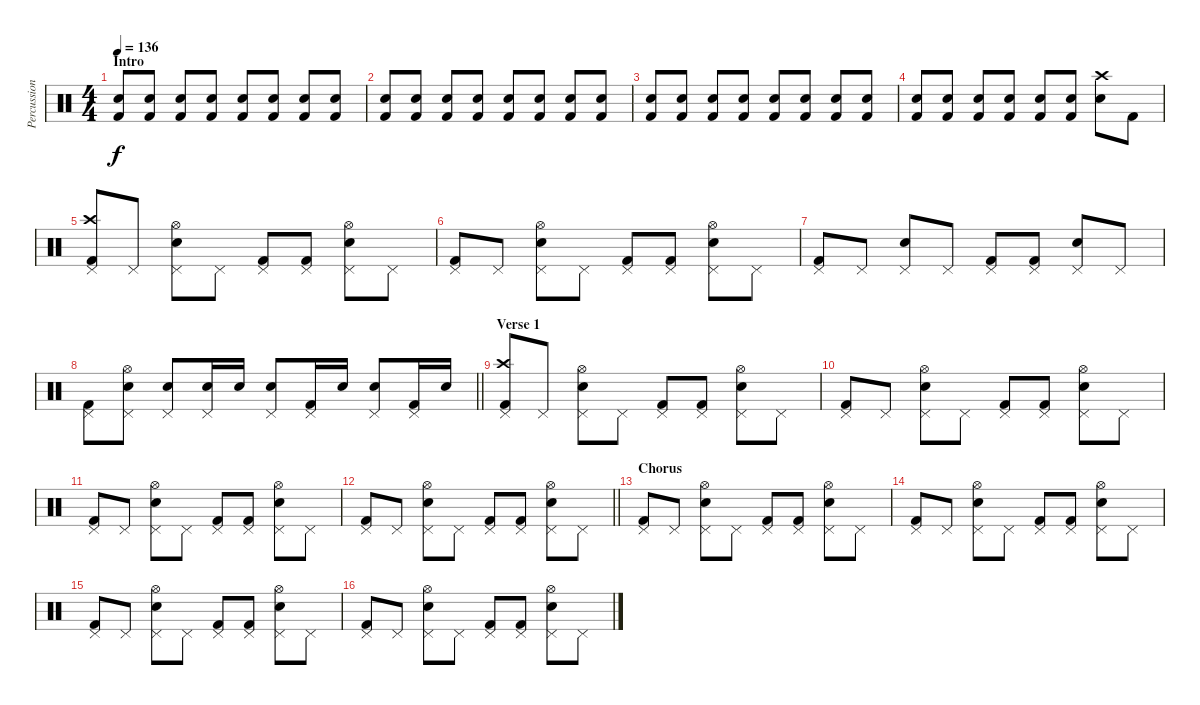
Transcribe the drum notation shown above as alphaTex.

\track ("Percussion" "Percussion") {instrument percussion}
\staff {score}
\articulation defaults
\ts (4 4)
\section ("" "Intro")
\tempo 136
\clef neutral
\ks c
("Snare (hit) 2" "Kick (hit) 2").8{dy f} ("Snare (hit) 2" "Kick (hit) 2").8 ("Snare (hit) 2" "Kick (hit) 2").8 ("Snare (hit) 2" "Kick (hit) 2").8 ("Snare (hit) 2" "Kick (hit) 2").8 ("Snare (hit) 2" "Kick (hit) 2").8 ("Snare (hit) 2" "Kick (hit) 2").8 ("Snare (hit) 2" "Kick (hit) 2").8 |
("Snare (hit) 2" "Kick (hit) 2").8 ("Snare (hit) 2" "Kick (hit) 2").8 ("Snare (hit) 2" "Kick (hit) 2").8 ("Snare (hit) 2" "Kick (hit) 2").8 ("Snare (hit) 2" "Kick (hit) 2").8 ("Snare (hit) 2" "Kick (hit) 2").8 ("Snare (hit) 2" "Kick (hit) 2").8 ("Snare (hit) 2" "Kick (hit) 2").8 |
("Snare (hit) 2" "Kick (hit) 2").8 ("Snare (hit) 2" "Kick (hit) 2").8 ("Snare (hit) 2" "Kick (hit) 2").8 ("Snare (hit) 2" "Kick (hit) 2").8 ("Snare (hit) 2" "Kick (hit) 2").8 ("Snare (hit) 2" "Kick (hit) 2").8 ("Snare (hit) 2" "Kick (hit) 2").8 ("Snare (hit) 2" "Kick (hit) 2").8 |
("Snare (hit) 2" "Kick (hit) 2").8 ("Snare (hit) 2" "Kick (hit) 2").8 ("Snare (hit) 2" "Kick (hit) 2").8 ("Snare (hit) 2" "Kick (hit) 2").8 ("Snare (hit) 2" "Kick (hit) 2").8 ("Snare (hit) 2" "Kick (hit) 2").8 ("Crash high (hit)" "Snare (hit) 2").8 "Kick (hit) 2".8 |
("Crash high (hit)" "Pedal Hi-Hat (hit)" "Kick (hit) 2").8 "Pedal Hi-Hat (hit)".8 ("Hi-Hat (open)" "Pedal Hi-Hat (hit)" "Snare (hit) 2").8 "Pedal Hi-Hat (hit)".8 ("Pedal Hi-Hat (hit)" "Kick (hit) 2").8 ("Pedal Hi-Hat (hit)" "Kick (hit) 2").8 ("Hi-Hat (open)" "Pedal Hi-Hat (hit)" "Snare (hit) 2").8 "Pedal Hi-Hat (hit)".8 |
("Pedal Hi-Hat (hit)" "Kick (hit) 2").8 "Pedal Hi-Hat (hit)".8 ("Hi-Hat (open)" "Pedal Hi-Hat (hit)" "Snare (hit) 2").8 "Pedal Hi-Hat (hit)".8 ("Pedal Hi-Hat (hit)" "Kick (hit) 2").8 ("Pedal Hi-Hat (hit)" "Kick (hit) 2").8 ("Hi-Hat (open)" "Pedal Hi-Hat (hit)" "Snare (hit) 2").8 "Pedal Hi-Hat (hit)".8 |
("Pedal Hi-Hat (hit)" "Kick (hit) 2").8 "Pedal Hi-Hat (hit)".8 ("Pedal Hi-Hat (hit)" "Snare (hit) 2").8 "Pedal Hi-Hat (hit)".8 ("Pedal Hi-Hat (hit)" "Kick (hit) 2").8 ("Pedal Hi-Hat (hit)" "Kick (hit) 2").8 ("Pedal Hi-Hat (hit)" "Snare (hit) 2").8 "Pedal Hi-Hat (hit)".8 |
\barLineRight lightlight
("Pedal Hi-Hat (hit)" "Kick (hit) 2").8 ("Hi-Hat (open)" "Pedal Hi-Hat (hit)" "Snare (hit) 2").8 ("Pedal Hi-Hat (hit)" "Snare (hit) 2").8 ("Pedal Hi-Hat (hit)" "Snare (hit) 2").16 "Snare (hit) 2".16 ("Pedal Hi-Hat (hit)" "Snare (hit) 2").8 ("Pedal Hi-Hat (hit)" "Kick (hit) 2").16 "Snare (hit) 2".16 ("Pedal Hi-Hat (hit)" "Snare (hit) 2").8 ("Pedal Hi-Hat (hit)" "Kick (hit) 2").16 "Snare (hit) 2".16 |
\section ("" "Verse 1")
("Crash high (hit)" "Pedal Hi-Hat (hit)" "Kick (hit) 2").8 "Pedal Hi-Hat (hit)".8 ("Hi-Hat (open)" "Pedal Hi-Hat (hit)" "Snare (hit) 2").8 "Pedal Hi-Hat (hit)".8 ("Pedal Hi-Hat (hit)" "Kick (hit) 2").8 ("Pedal Hi-Hat (hit)" "Kick (hit) 2").8 ("Hi-Hat (open)" "Pedal Hi-Hat (hit)" "Snare (hit) 2").8 "Pedal Hi-Hat (hit)".8 |
("Pedal Hi-Hat (hit)" "Kick (hit) 2").8 "Pedal Hi-Hat (hit)".8 ("Hi-Hat (open)" "Pedal Hi-Hat (hit)" "Snare (hit) 2").8 "Pedal Hi-Hat (hit)".8 ("Pedal Hi-Hat (hit)" "Kick (hit) 2").8 ("Pedal Hi-Hat (hit)" "Kick (hit) 2").8 ("Hi-Hat (open)" "Pedal Hi-Hat (hit)" "Snare (hit) 2").8 "Pedal Hi-Hat (hit)".8 |
("Pedal Hi-Hat (hit)" "Kick (hit) 2").8 "Pedal Hi-Hat (hit)".8 ("Hi-Hat (open)" "Pedal Hi-Hat (hit)" "Snare (hit) 2").8 "Pedal Hi-Hat (hit)".8 ("Pedal Hi-Hat (hit)" "Kick (hit) 2").8 ("Pedal Hi-Hat (hit)" "Kick (hit) 2").8 ("Hi-Hat (open)" "Pedal Hi-Hat (hit)" "Snare (hit) 2").8 "Pedal Hi-Hat (hit)".8 |
\barLineRight lightlight
("Pedal Hi-Hat (hit)" "Kick (hit) 2").8 "Pedal Hi-Hat (hit)".8 ("Hi-Hat (open)" "Pedal Hi-Hat (hit)" "Snare (hit) 2").8 "Pedal Hi-Hat (hit)".8 ("Pedal Hi-Hat (hit)" "Kick (hit) 2").8 ("Pedal Hi-Hat (hit)" "Kick (hit) 2").8 ("Hi-Hat (open)" "Pedal Hi-Hat (hit)" "Snare (hit) 2").8 "Pedal Hi-Hat (hit)".8 |
\section ("" "Chorus")
("Pedal Hi-Hat (hit)" "Kick (hit) 2").8 "Pedal Hi-Hat (hit)".8 ("Hi-Hat (open)" "Pedal Hi-Hat (hit)" "Snare (hit) 2").8 "Pedal Hi-Hat (hit)".8 ("Pedal Hi-Hat (hit)" "Kick (hit) 2").8 ("Pedal Hi-Hat (hit)" "Kick (hit) 2").8 ("Hi-Hat (open)" "Pedal Hi-Hat (hit)" "Snare (hit) 2").8 "Pedal Hi-Hat (hit)".8 |
("Pedal Hi-Hat (hit)" "Kick (hit) 2").8 "Pedal Hi-Hat (hit)".8 ("Hi-Hat (open)" "Pedal Hi-Hat (hit)" "Snare (hit) 2").8 "Pedal Hi-Hat (hit)".8 ("Pedal Hi-Hat (hit)" "Kick (hit) 2").8 ("Pedal Hi-Hat (hit)" "Kick (hit) 2").8 ("Hi-Hat (open)" "Pedal Hi-Hat (hit)" "Snare (hit) 2").8 "Pedal Hi-Hat (hit)".8 |
("Pedal Hi-Hat (hit)" "Kick (hit) 2").8 "Pedal Hi-Hat (hit)".8 ("Hi-Hat (open)" "Pedal Hi-Hat (hit)" "Snare (hit) 2").8 "Pedal Hi-Hat (hit)".8 ("Pedal Hi-Hat (hit)" "Kick (hit) 2").8 ("Pedal Hi-Hat (hit)" "Kick (hit) 2").8 ("Hi-Hat (open)" "Pedal Hi-Hat (hit)" "Snare (hit) 2").8 "Pedal Hi-Hat (hit)".8 |
("Pedal Hi-Hat (hit)" "Kick (hit) 2").8 "Pedal Hi-Hat (hit)".8 ("Hi-Hat (open)" "Pedal Hi-Hat (hit)" "Snare (hit) 2").8 "Pedal Hi-Hat (hit)".8 ("Pedal Hi-Hat (hit)" "Kick (hit) 2").8 ("Pedal Hi-Hat (hit)" "Kick (hit) 2").8 ("Hi-Hat (open)" "Pedal Hi-Hat (hit)" "Snare (hit) 2").8 "Pedal Hi-Hat (hit)".8
